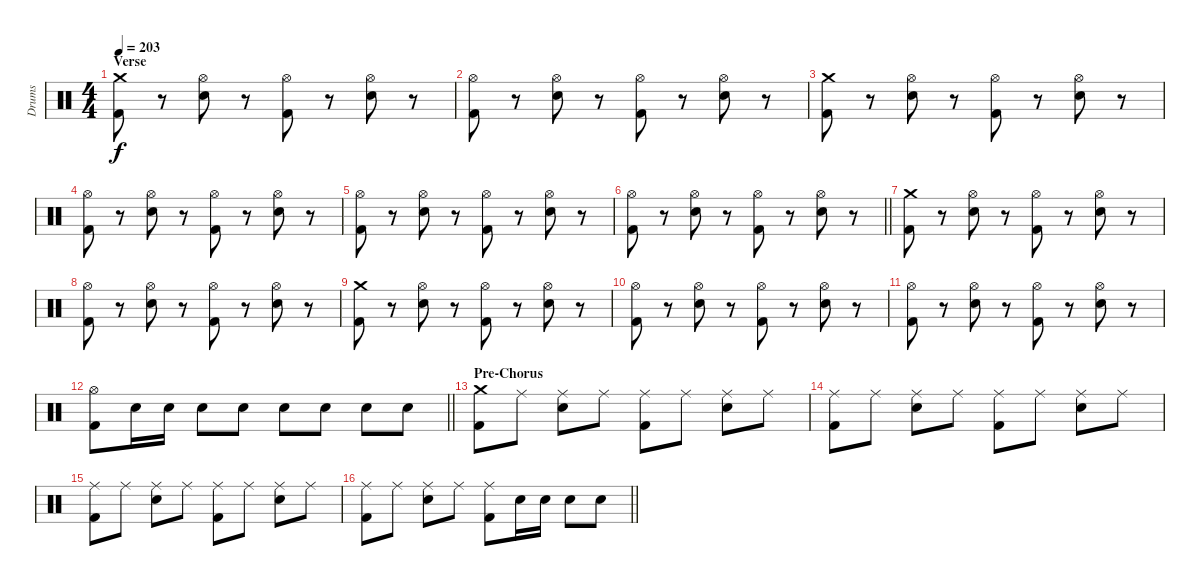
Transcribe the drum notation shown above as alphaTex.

\track ("Drums" "Drums") {instrument percussion}
\staff {score}
\articulation defaults
\ts (4 4)
\section ("" "Verse")
\tempo 203
\clef neutral
\ks c
("Crash medium (hit)" "Kick (hit) 2").8{dy f} r.8 ("Hi-Hat (open)" "Electric Snare (hit)").8 r.8 ("Hi-Hat (open)" "Kick (hit) 2").8 r.8 ("Hi-Hat (open)" "Electric Snare (hit)").8 r.8 |
("Hi-Hat (open)" "Kick (hit) 2").8 r.8 ("Hi-Hat (open)" "Electric Snare (hit)").8 r.8 ("Hi-Hat (open)" "Kick (hit) 2").8 r.8 ("Hi-Hat (open)" "Electric Snare (hit)").8 r.8 |
("Crash medium (hit)" "Kick (hit) 2").8 r.8 ("Hi-Hat (open)" "Electric Snare (hit)").8 r.8 ("Hi-Hat (open)" "Kick (hit) 2").8 r.8 ("Hi-Hat (open)" "Electric Snare (hit)").8 r.8 |
("Hi-Hat (open)" "Kick (hit) 2").8 r.8 ("Hi-Hat (open)" "Electric Snare (hit)").8 r.8 ("Hi-Hat (open)" "Kick (hit) 2").8 r.8 ("Hi-Hat (open)" "Electric Snare (hit)").8 r.8 |
("Hi-Hat (open)" "Kick (hit) 2").8 r.8 ("Hi-Hat (open)" "Electric Snare (hit)").8 r.8 ("Hi-Hat (open)" "Kick (hit) 2").8 r.8 ("Hi-Hat (open)" "Electric Snare (hit)").8 r.8 |
\barLineRight lightlight
("Hi-Hat (open)" "Kick (hit) 2").8 r.8 ("Hi-Hat (open)" "Electric Snare (hit)").8 r.8 ("Hi-Hat (open)" "Kick (hit) 2").8 r.8 ("Hi-Hat (open)" "Electric Snare (hit)").8 r.8 |
("Crash medium (hit)" "Kick (hit) 2").8 r.8 ("Hi-Hat (open)" "Electric Snare (hit)").8 r.8 ("Hi-Hat (open)" "Kick (hit) 2").8 r.8 ("Hi-Hat (open)" "Electric Snare (hit)").8 r.8 |
("Hi-Hat (open)" "Kick (hit) 2").8 r.8 ("Hi-Hat (open)" "Electric Snare (hit)").8 r.8 ("Hi-Hat (open)" "Kick (hit) 2").8 r.8 ("Hi-Hat (open)" "Electric Snare (hit)").8 r.8 |
("Crash medium (hit)" "Kick (hit) 2").8 r.8 ("Hi-Hat (open)" "Electric Snare (hit)").8 r.8 ("Hi-Hat (open)" "Kick (hit) 2").8 r.8 ("Hi-Hat (open)" "Electric Snare (hit)").8 r.8 |
("Hi-Hat (open)" "Kick (hit) 2").8 r.8 ("Hi-Hat (open)" "Electric Snare (hit)").8 r.8 ("Hi-Hat (open)" "Kick (hit) 2").8 r.8 ("Hi-Hat (open)" "Electric Snare (hit)").8 r.8 |
("Hi-Hat (open)" "Kick (hit) 2").8 r.8 ("Hi-Hat (open)" "Electric Snare (hit)").8 r.8 ("Hi-Hat (open)" "Kick (hit) 2").8 r.8 ("Hi-Hat (open)" "Electric Snare (hit)").8 r.8 |
\barLineRight lightlight
("Hi-Hat (open)" "Kick (hit) 2").8 "Electric Snare (hit)".16 "Electric Snare (hit)".16 "Electric Snare (hit)".8 "Electric Snare (hit)".8 "Electric Snare (hit)".8 "Electric Snare (hit)".8 "Electric Snare (hit)".8 "Electric Snare (hit)".8 |
\section ("" "Pre-Chorus")
("Crash medium (hit)" "Kick (hit) 2").8 "Ride (middle)".8 ("Ride (middle)" "Electric Snare (hit)").8 "Ride (middle)".8 ("Ride (middle)" "Kick (hit) 2").8 "Ride (middle)".8 ("Ride (middle)" "Electric Snare (hit)").8 "Ride (middle)".8 |
("Ride (middle)" "Kick (hit) 2").8 "Ride (middle)".8 ("Ride (middle)" "Electric Snare (hit)").8 "Ride (middle)".8 ("Ride (middle)" "Kick (hit) 2").8 "Ride (middle)".8 ("Ride (middle)" "Electric Snare (hit)").8 "Ride (middle)".8 |
("Ride (middle)" "Kick (hit) 2").8 "Ride (middle)".8 ("Ride (middle)" "Electric Snare (hit)").8 "Ride (middle)".8 ("Ride (middle)" "Kick (hit) 2").8 "Ride (middle)".8 ("Ride (middle)" "Electric Snare (hit)").8 "Ride (middle)".8 |
\barLineRight lightlight
("Ride (middle)" "Kick (hit) 2").8 "Ride (middle)".8 ("Ride (middle)" "Electric Snare (hit)").8 "Ride (middle)".8 ("Ride (middle)" "Kick (hit) 2").8 "Electric Snare (hit)".16 "Electric Snare (hit)".16 "Electric Snare (hit)".8 "Electric Snare (hit)".8
